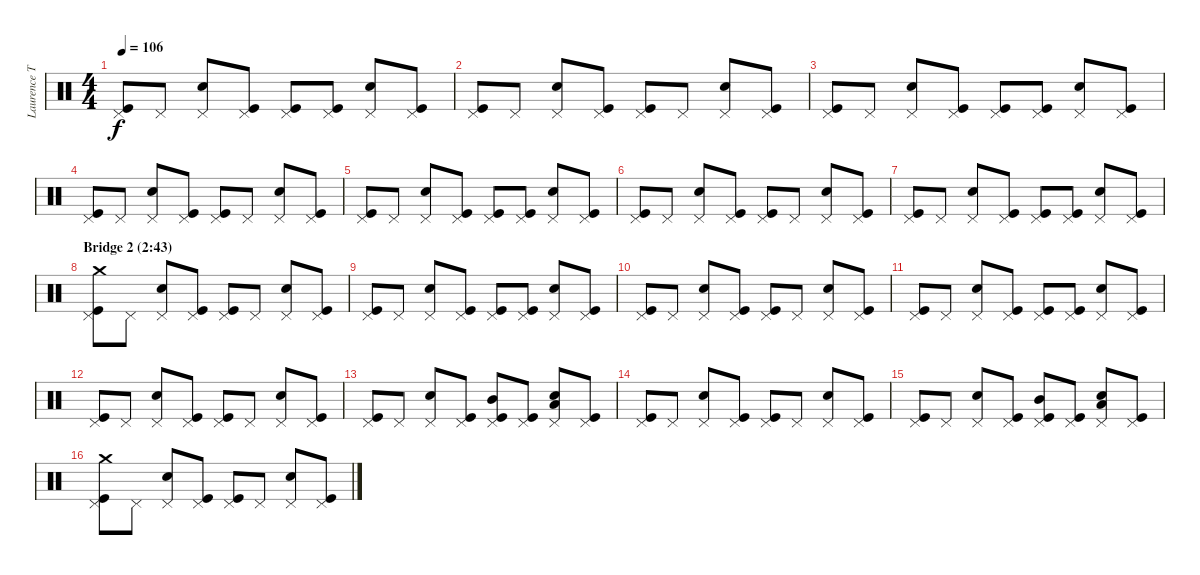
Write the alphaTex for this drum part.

\track ("Laurence Tolhurst (drums)" "Laurence T") {instrument percussion}
\staff {score}
\articulation defaults
\ts (4 4)
\tempo 106
\clef neutral
\ks c
("Pedal Hi-Hat (hit)" "Kick (hit)").8{dy f} "Pedal Hi-Hat (hit)".8 ("Pedal Hi-Hat (hit)" "Snare (hit) 2").8 ("Pedal Hi-Hat (hit)" "Kick (hit)").8 ("Pedal Hi-Hat (hit)" "Kick (hit)").8 ("Pedal Hi-Hat (hit)" "Kick (hit)").8 ("Pedal Hi-Hat (hit)" "Snare (hit) 2").8 ("Pedal Hi-Hat (hit)" "Kick (hit)").8 |
("Pedal Hi-Hat (hit)" "Kick (hit)").8 "Pedal Hi-Hat (hit)".8 ("Pedal Hi-Hat (hit)" "Snare (hit) 2").8 ("Pedal Hi-Hat (hit)" "Kick (hit)").8 ("Pedal Hi-Hat (hit)" "Kick (hit)").8 "Pedal Hi-Hat (hit)".8 ("Pedal Hi-Hat (hit)" "Snare (hit) 2").8 ("Pedal Hi-Hat (hit)" "Kick (hit)").8 |
("Pedal Hi-Hat (hit)" "Kick (hit)").8 "Pedal Hi-Hat (hit)".8 ("Pedal Hi-Hat (hit)" "Snare (hit) 2").8 ("Pedal Hi-Hat (hit)" "Kick (hit)").8 ("Pedal Hi-Hat (hit)" "Kick (hit)").8 ("Pedal Hi-Hat (hit)" "Kick (hit)").8 ("Pedal Hi-Hat (hit)" "Snare (hit) 2").8 ("Pedal Hi-Hat (hit)" "Kick (hit)").8 |
("Pedal Hi-Hat (hit)" "Kick (hit)").8 "Pedal Hi-Hat (hit)".8 ("Pedal Hi-Hat (hit)" "Snare (hit) 2").8 ("Pedal Hi-Hat (hit)" "Kick (hit)").8 ("Pedal Hi-Hat (hit)" "Kick (hit)").8 "Pedal Hi-Hat (hit)".8 ("Pedal Hi-Hat (hit)" "Snare (hit) 2").8 ("Pedal Hi-Hat (hit)" "Kick (hit)").8 |
("Pedal Hi-Hat (hit)" "Kick (hit)").8 "Pedal Hi-Hat (hit)".8 ("Pedal Hi-Hat (hit)" "Snare (hit) 2").8 ("Pedal Hi-Hat (hit)" "Kick (hit)").8 ("Pedal Hi-Hat (hit)" "Kick (hit)").8 ("Pedal Hi-Hat (hit)" "Kick (hit)").8 ("Pedal Hi-Hat (hit)" "Snare (hit) 2").8 ("Pedal Hi-Hat (hit)" "Kick (hit)").8 |
("Pedal Hi-Hat (hit)" "Kick (hit)").8 "Pedal Hi-Hat (hit)".8 ("Pedal Hi-Hat (hit)" "Snare (hit) 2").8 ("Pedal Hi-Hat (hit)" "Kick (hit)").8 ("Pedal Hi-Hat (hit)" "Kick (hit)").8 "Pedal Hi-Hat (hit)".8 ("Pedal Hi-Hat (hit)" "Snare (hit) 2").8 ("Pedal Hi-Hat (hit)" "Kick (hit)").8 |
("Pedal Hi-Hat (hit)" "Kick (hit)").8 "Pedal Hi-Hat (hit)".8 ("Pedal Hi-Hat (hit)" "Snare (hit) 2").8 ("Pedal Hi-Hat (hit)" "Kick (hit)").8 ("Pedal Hi-Hat (hit)" "Kick (hit)").8 ("Pedal Hi-Hat (hit)" "Kick (hit)").8 ("Pedal Hi-Hat (hit)" "Snare (hit) 2").8 ("Pedal Hi-Hat (hit)" "Kick (hit)").8 |
\section ("" "Bridge 2 (2:43)")
("Crash medium (hit)" "Pedal Hi-Hat (hit)" "Kick (hit)").8 "Pedal Hi-Hat (hit)".8 ("Pedal Hi-Hat (hit)" "Snare (hit) 2").8 ("Pedal Hi-Hat (hit)" "Kick (hit)").8 ("Pedal Hi-Hat (hit)" "Kick (hit)").8 "Pedal Hi-Hat (hit)".8 ("Pedal Hi-Hat (hit)" "Snare (hit) 2").8 ("Pedal Hi-Hat (hit)" "Kick (hit)").8 |
("Pedal Hi-Hat (hit)" "Kick (hit)").8 "Pedal Hi-Hat (hit)".8 ("Pedal Hi-Hat (hit)" "Snare (hit) 2").8 ("Pedal Hi-Hat (hit)" "Kick (hit)").8 ("Pedal Hi-Hat (hit)" "Kick (hit)").8 ("Pedal Hi-Hat (hit)" "Kick (hit)").8 ("Pedal Hi-Hat (hit)" "Snare (hit) 2").8 ("Pedal Hi-Hat (hit)" "Kick (hit)").8 |
("Pedal Hi-Hat (hit)" "Kick (hit)").8 "Pedal Hi-Hat (hit)".8 ("Pedal Hi-Hat (hit)" "Snare (hit) 2").8 ("Pedal Hi-Hat (hit)" "Kick (hit)").8 ("Pedal Hi-Hat (hit)" "Kick (hit)").8 "Pedal Hi-Hat (hit)".8 ("Pedal Hi-Hat (hit)" "Snare (hit) 2").8 ("Pedal Hi-Hat (hit)" "Kick (hit)").8 |
("Pedal Hi-Hat (hit)" "Kick (hit)").8 "Pedal Hi-Hat (hit)".8 ("Pedal Hi-Hat (hit)" "Snare (hit) 2").8 ("Pedal Hi-Hat (hit)" "Kick (hit)").8 ("Pedal Hi-Hat (hit)" "Kick (hit)").8 ("Pedal Hi-Hat (hit)" "Kick (hit)").8 ("Pedal Hi-Hat (hit)" "Snare (hit) 2").8 ("Pedal Hi-Hat (hit)" "Kick (hit)").8 |
("Pedal Hi-Hat (hit)" "Kick (hit)").8 "Pedal Hi-Hat (hit)".8 ("Pedal Hi-Hat (hit)" "Snare (hit) 2").8 ("Pedal Hi-Hat (hit)" "Kick (hit)").8 ("Pedal Hi-Hat (hit)" "Kick (hit)").8 "Pedal Hi-Hat (hit)".8 ("Pedal Hi-Hat (hit)" "Snare (hit) 2").8 ("Pedal Hi-Hat (hit)" "Kick (hit)").8 |
("Pedal Hi-Hat (hit)" "Kick (hit)").8 "Pedal Hi-Hat (hit)".8 ("Pedal Hi-Hat (hit)" "Snare (hit) 2").8 ("Pedal Hi-Hat (hit)" "Kick (hit)").8 ("Mid Tom (hit)" "Pedal Hi-Hat (hit)" "Kick (hit)").8 ("Pedal Hi-Hat (hit)" "Kick (hit)").8 ("Low Tom (hit)" "Pedal Hi-Hat (hit)" "Snare (hit) 2").8 ("Pedal Hi-Hat (hit)" "Kick (hit)").8 |
("Pedal Hi-Hat (hit)" "Kick (hit)").8 "Pedal Hi-Hat (hit)".8 ("Pedal Hi-Hat (hit)" "Snare (hit) 2").8 ("Pedal Hi-Hat (hit)" "Kick (hit)").8 ("Pedal Hi-Hat (hit)" "Kick (hit)").8 "Pedal Hi-Hat (hit)".8 ("Pedal Hi-Hat (hit)" "Snare (hit) 2").8 ("Pedal Hi-Hat (hit)" "Kick (hit)").8 |
("Pedal Hi-Hat (hit)" "Kick (hit)").8 "Pedal Hi-Hat (hit)".8 ("Pedal Hi-Hat (hit)" "Snare (hit) 2").8 ("Pedal Hi-Hat (hit)" "Kick (hit)").8 ("Mid Tom (hit)" "Pedal Hi-Hat (hit)" "Kick (hit)").8 ("Pedal Hi-Hat (hit)" "Kick (hit)").8 ("Low Tom (hit)" "Pedal Hi-Hat (hit)" "Snare (hit) 2").8 ("Pedal Hi-Hat (hit)" "Kick (hit)").8 |
("Crash medium (hit)" "Pedal Hi-Hat (hit)" "Kick (hit)").8 "Pedal Hi-Hat (hit)".8 ("Pedal Hi-Hat (hit)" "Snare (hit) 2").8 ("Pedal Hi-Hat (hit)" "Kick (hit)").8 ("Pedal Hi-Hat (hit)" "Kick (hit)").8 "Pedal Hi-Hat (hit)".8 ("Pedal Hi-Hat (hit)" "Snare (hit) 2").8 ("Pedal Hi-Hat (hit)" "Kick (hit)").8
